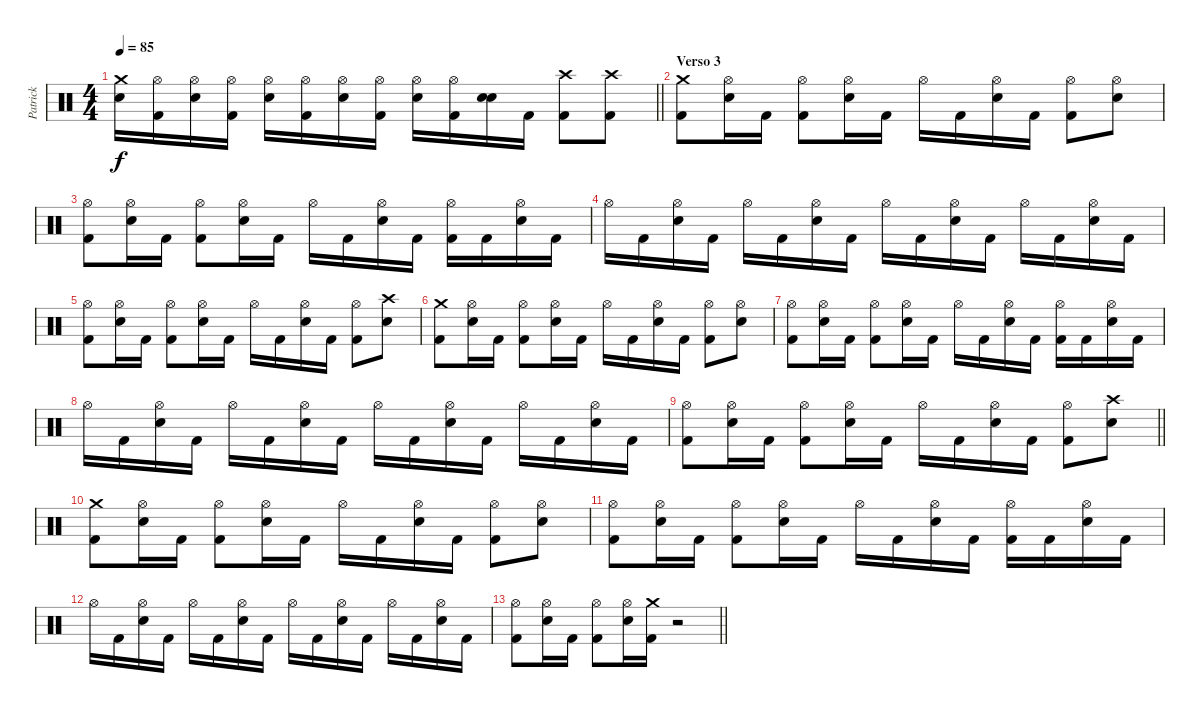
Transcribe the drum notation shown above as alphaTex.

\track ("Patrick" "Patrick") {instrument percussion}
\staff {score}
\articulation defaults
\ts (4 4)
\tempo 85
\clef neutral
\barLineRight lightlight
\ks c
("Crash medium (hit)" "Electric Snare (hit)").16{dy f} ("Hi-Hat (open)" "Kick (hit) 2").16 ("Hi-Hat (open)" "Electric Snare (hit)").16 ("Hi-Hat (open)" "Kick (hit) 2").16 ("Hi-Hat (open)" "Electric Snare (hit)").16 ("Hi-Hat (open)" "Kick (hit) 2").16 ("Hi-Hat (open)" "Electric Snare (hit)").16 ("Hi-Hat (open)" "Kick (hit) 2").16 ("Hi-Hat (open)" "Electric Snare (hit)").16 ("Hi-Hat (open)" "Kick (hit) 2").16 ("Electric Snare (hit)" "Electric Snare (hit)").16 "Kick (hit) 2".16 ("Crash high (hit)" "Kick (hit) 2").8 ("Crash high (hit)" "Kick (hit) 2").8 |
\section ("" "Verso 3")
("Crash medium (hit)" "Kick (hit) 2").8 ("Hi-Hat (open)" "Electric Snare (hit)").16 "Kick (hit) 2".16 ("Hi-Hat (open)" "Kick (hit) 2").8 ("Hi-Hat (open)" "Electric Snare (hit)").16 "Kick (hit) 2".16 "Hi-Hat (open)".16 "Kick (hit) 2".16 ("Hi-Hat (open)" "Electric Snare (hit)").16 "Kick (hit) 2".16 ("Hi-Hat (open)" "Kick (hit) 2").8 ("Hi-Hat (open)" "Electric Snare (hit)").8 |
("Hi-Hat (open)" "Kick (hit) 2").8 ("Hi-Hat (open)" "Electric Snare (hit)").16 "Kick (hit) 2".16 ("Hi-Hat (open)" "Kick (hit) 2").8 ("Hi-Hat (open)" "Electric Snare (hit)").16 "Kick (hit) 2".16 "Hi-Hat (open)".16 "Kick (hit) 2".16 ("Hi-Hat (open)" "Electric Snare (hit)").16 "Kick (hit) 2".16 ("Hi-Hat (open)" "Kick (hit) 2").16 "Kick (hit) 2".16 ("Hi-Hat (open)" "Electric Snare (hit)").16 "Kick (hit) 2".16 |
"Hi-Hat (open)".16 "Kick (hit) 2".16 ("Hi-Hat (open)" "Electric Snare (hit)").16 "Kick (hit) 2".16 "Hi-Hat (open)".16 "Kick (hit) 2".16 ("Hi-Hat (open)" "Electric Snare (hit)").16 "Kick (hit) 2".16 "Hi-Hat (open)".16 "Kick (hit) 2".16 ("Hi-Hat (open)" "Electric Snare (hit)").16 "Kick (hit) 2".16 "Hi-Hat (open)".16 "Kick (hit) 2".16 ("Hi-Hat (open)" "Electric Snare (hit)").16 "Kick (hit) 2".16 |
("Hi-Hat (open)" "Kick (hit) 2").8 ("Hi-Hat (open)" "Electric Snare (hit)").16 "Kick (hit) 2".16 ("Hi-Hat (open)" "Kick (hit) 2").8 ("Hi-Hat (open)" "Electric Snare (hit)").16 "Kick (hit) 2".16 "Hi-Hat (open)".16 "Kick (hit) 2".16 ("Hi-Hat (open)" "Electric Snare (hit)").16 "Kick (hit) 2".16 ("Hi-Hat (open)" "Kick (hit) 2").8 ("Crash high (hit)" "Electric Snare (hit)").8 |
("Crash medium (hit)" "Kick (hit) 2").8 ("Hi-Hat (open)" "Electric Snare (hit)").16 "Kick (hit) 2".16 ("Hi-Hat (open)" "Kick (hit) 2").8 ("Hi-Hat (open)" "Electric Snare (hit)").16 "Kick (hit) 2".16 "Hi-Hat (open)".16 "Kick (hit) 2".16 ("Hi-Hat (open)" "Electric Snare (hit)").16 "Kick (hit) 2".16 ("Hi-Hat (open)" "Kick (hit) 2").8 ("Hi-Hat (open)" "Electric Snare (hit)").8 |
("Hi-Hat (open)" "Kick (hit) 2").8 ("Hi-Hat (open)" "Electric Snare (hit)").16 "Kick (hit) 2".16 ("Hi-Hat (open)" "Kick (hit) 2").8 ("Hi-Hat (open)" "Electric Snare (hit)").16 "Kick (hit) 2".16 "Hi-Hat (open)".16 "Kick (hit) 2".16 ("Hi-Hat (open)" "Electric Snare (hit)").16 "Kick (hit) 2".16 ("Hi-Hat (open)" "Kick (hit) 2").16 "Kick (hit) 2".16 ("Hi-Hat (open)" "Electric Snare (hit)").16 "Kick (hit) 2".16 |
"Hi-Hat (open)".16 "Kick (hit) 2".16 ("Hi-Hat (open)" "Electric Snare (hit)").16 "Kick (hit) 2".16 "Hi-Hat (open)".16 "Kick (hit) 2".16 ("Hi-Hat (open)" "Electric Snare (hit)").16 "Kick (hit) 2".16 "Hi-Hat (open)".16 "Kick (hit) 2".16 ("Hi-Hat (open)" "Electric Snare (hit)").16 "Kick (hit) 2".16 "Hi-Hat (open)".16 "Kick (hit) 2".16 ("Hi-Hat (open)" "Electric Snare (hit)").16 "Kick (hit) 2".16 |
\barLineRight lightlight
("Hi-Hat (open)" "Kick (hit) 2").8 ("Hi-Hat (open)" "Electric Snare (hit)").16 "Kick (hit) 2".16 ("Hi-Hat (open)" "Kick (hit) 2").8 ("Hi-Hat (open)" "Electric Snare (hit)").16 "Kick (hit) 2".16 "Hi-Hat (open)".16 "Kick (hit) 2".16 ("Hi-Hat (open)" "Electric Snare (hit)").16 "Kick (hit) 2".16 ("Hi-Hat (open)" "Kick (hit) 2").8 ("Crash high (hit)" "Electric Snare (hit)").8 |
("Crash medium (hit)" "Kick (hit) 2").8 ("Hi-Hat (open)" "Electric Snare (hit)").16 "Kick (hit) 2".16 ("Hi-Hat (open)" "Kick (hit) 2").8 ("Hi-Hat (open)" "Electric Snare (hit)").16 "Kick (hit) 2".16 "Hi-Hat (open)".16 "Kick (hit) 2".16 ("Hi-Hat (open)" "Electric Snare (hit)").16 "Kick (hit) 2".16 ("Hi-Hat (open)" "Kick (hit) 2").8 ("Hi-Hat (open)" "Electric Snare (hit)").8 |
("Hi-Hat (open)" "Kick (hit) 2").8 ("Hi-Hat (open)" "Electric Snare (hit)").16 "Kick (hit) 2".16 ("Hi-Hat (open)" "Kick (hit) 2").8 ("Hi-Hat (open)" "Electric Snare (hit)").16 "Kick (hit) 2".16 "Hi-Hat (open)".16 "Kick (hit) 2".16 ("Hi-Hat (open)" "Electric Snare (hit)").16 "Kick (hit) 2".16 ("Hi-Hat (open)" "Kick (hit) 2").16 "Kick (hit) 2".16 ("Hi-Hat (open)" "Electric Snare (hit)").16 "Kick (hit) 2".16 |
"Hi-Hat (open)".16 "Kick (hit) 2".16 ("Hi-Hat (open)" "Electric Snare (hit)").16 "Kick (hit) 2".16 "Hi-Hat (open)".16 "Kick (hit) 2".16 ("Hi-Hat (open)" "Electric Snare (hit)").16 "Kick (hit) 2".16 "Hi-Hat (open)".16 "Kick (hit) 2".16 ("Hi-Hat (open)" "Electric Snare (hit)").16 "Kick (hit) 2".16 "Hi-Hat (open)".16 "Kick (hit) 2".16 ("Hi-Hat (open)" "Electric Snare (hit)").16 "Kick (hit) 2".16 |
\barLineRight lightlight
("Hi-Hat (open)" "Kick (hit) 2").8 ("Hi-Hat (open)" "Electric Snare (hit)").16 "Kick (hit) 2".16 ("Hi-Hat (open)" "Kick (hit) 2").8 ("Hi-Hat (open)" "Electric Snare (hit)").16 ("Crash medium (hit)" "Kick (hit) 2").16 r.2
